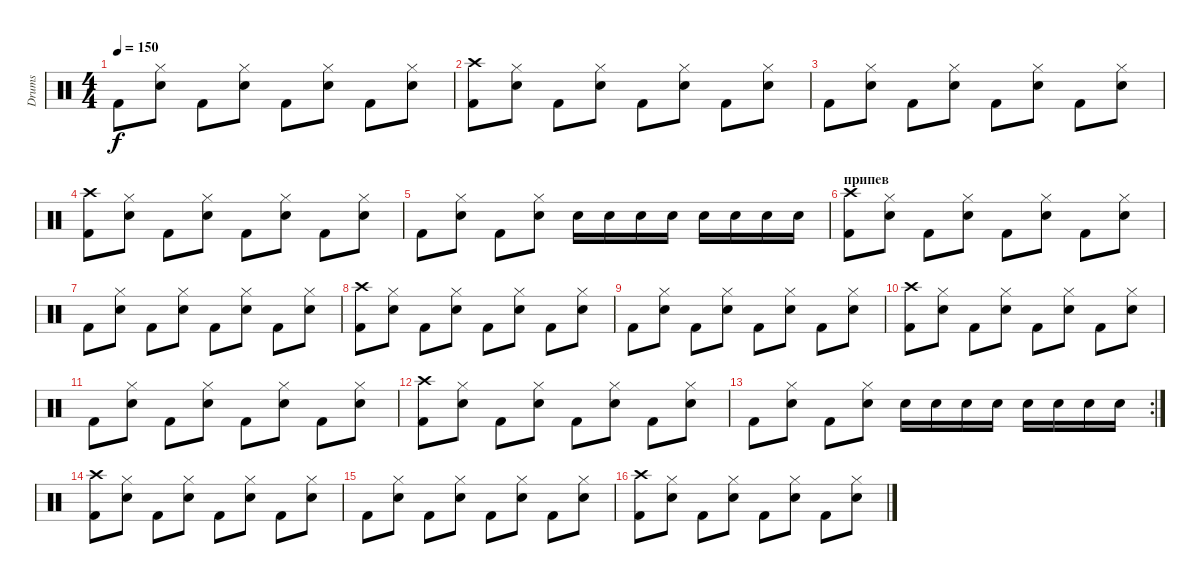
\track ("Drums" "Drums") {instrument percussion}
\staff {score}
\articulation defaults
\ts (4 4)
\tempo 150
\clef neutral
\ks c "Kick (hit) 2".8{dy f}
("Hi-Hat (closed)" "Electric Snare (hit)").8 "Kick (hit) 2".8 ("Hi-Hat (closed)" "Electric Snare (hit)").8 "Kick (hit) 2".8 ("Hi-Hat (closed)" "Electric Snare (hit)").8 "Kick (hit) 2".8 ("Hi-Hat (closed)" "Electric Snare (hit)").8 |
("Crash high (hit)" "Kick (hit) 2").8 ("Hi-Hat (closed)" "Electric Snare (hit)").8 "Kick (hit) 2".8 ("Hi-Hat (closed)" "Electric Snare (hit)").8 "Kick (hit) 2".8 ("Hi-Hat (closed)" "Electric Snare (hit)").8 "Kick (hit) 2".8 ("Hi-Hat (closed)" "Electric Snare (hit)").8 |
"Kick (hit) 2".8 ("Hi-Hat (closed)" "Electric Snare (hit)").8 "Kick (hit) 2".8 ("Hi-Hat (closed)" "Electric Snare (hit)").8 "Kick (hit) 2".8 ("Hi-Hat (closed)" "Electric Snare (hit)").8 "Kick (hit) 2".8 ("Hi-Hat (closed)" "Electric Snare (hit)").8 |
("Crash high (hit)" "Kick (hit) 2").8 ("Hi-Hat (closed)" "Electric Snare (hit)").8 "Kick (hit) 2".8 ("Hi-Hat (closed)" "Electric Snare (hit)").8 "Kick (hit) 2".8 ("Hi-Hat (closed)" "Electric Snare (hit)").8 "Kick (hit) 2".8 ("Hi-Hat (closed)" "Electric Snare (hit)").8 |
"Kick (hit) 2".8 ("Hi-Hat (closed)" "Electric Snare (hit)").8 "Kick (hit) 2".8 ("Hi-Hat (closed)" "Electric Snare (hit)").8 "Snare (hit) 2".16 "Snare (hit) 2".16 "Snare (hit) 2".16 "Snare (hit) 2".16 "Snare (hit) 2".16 "Snare (hit) 2".16 "Snare (hit) 2".16 "Snare (hit) 2".16 |
\section ("" "припев")
("Crash high (hit)" "Kick (hit) 2").8 ("Hi-Hat (closed)" "Electric Snare (hit)").8 "Kick (hit) 2".8 ("Hi-Hat (closed)" "Electric Snare (hit)").8 "Kick (hit) 2".8 ("Hi-Hat (closed)" "Electric Snare (hit)").8 "Kick (hit) 2".8 ("Hi-Hat (closed)" "Electric Snare (hit)").8 |
"Kick (hit) 2".8 ("Hi-Hat (closed)" "Electric Snare (hit)").8 "Kick (hit) 2".8 ("Hi-Hat (closed)" "Electric Snare (hit)").8 "Kick (hit) 2".8 ("Hi-Hat (closed)" "Electric Snare (hit)").8 "Kick (hit) 2".8 ("Hi-Hat (closed)" "Electric Snare (hit)").8 |
("Crash high (hit)" "Kick (hit) 2").8 ("Hi-Hat (closed)" "Electric Snare (hit)").8 "Kick (hit) 2".8 ("Hi-Hat (closed)" "Electric Snare (hit)").8 "Kick (hit) 2".8 ("Hi-Hat (closed)" "Electric Snare (hit)").8 "Kick (hit) 2".8 ("Hi-Hat (closed)" "Electric Snare (hit)").8 |
"Kick (hit) 2".8 ("Hi-Hat (closed)" "Electric Snare (hit)").8 "Kick (hit) 2".8 ("Hi-Hat (closed)" "Electric Snare (hit)").8 "Kick (hit) 2".8 ("Hi-Hat (closed)" "Electric Snare (hit)").8 "Kick (hit) 2".8 ("Hi-Hat (closed)" "Electric Snare (hit)").8 |
("Crash high (hit)" "Kick (hit) 2").8 ("Hi-Hat (closed)" "Electric Snare (hit)").8 "Kick (hit) 2".8 ("Hi-Hat (closed)" "Electric Snare (hit)").8 "Kick (hit) 2".8 ("Hi-Hat (closed)" "Electric Snare (hit)").8 "Kick (hit) 2".8 ("Hi-Hat (closed)" "Electric Snare (hit)").8 |
"Kick (hit) 2".8 ("Hi-Hat (closed)" "Electric Snare (hit)").8 "Kick (hit) 2".8 ("Hi-Hat (closed)" "Electric Snare (hit)").8 "Kick (hit) 2".8 ("Hi-Hat (closed)" "Electric Snare (hit)").8 "Kick (hit) 2".8 ("Hi-Hat (closed)" "Electric Snare (hit)").8 |
("Crash high (hit)" "Kick (hit) 2").8 ("Hi-Hat (closed)" "Electric Snare (hit)").8 "Kick (hit) 2".8 ("Hi-Hat (closed)" "Electric Snare (hit)").8 "Kick (hit) 2".8 ("Hi-Hat (closed)" "Electric Snare (hit)").8 "Kick (hit) 2".8 ("Hi-Hat (closed)" "Electric Snare (hit)").8 |
\rc 2 "Kick (hit) 2".8
("Hi-Hat (closed)" "Electric Snare (hit)").8 "Kick (hit) 2".8 ("Hi-Hat (closed)" "Electric Snare (hit)").8 "Snare (hit) 2".16 "Snare (hit) 2".16 "Snare (hit) 2".16 "Snare (hit) 2".16 "Snare (hit) 2".16 "Snare (hit) 2".16 "Snare (hit) 2".16 "Snare (hit) 2".16 |
("Crash high (hit)" "Kick (hit) 2").8 ("Hi-Hat (closed)" "Electric Snare (hit)").8 "Kick (hit) 2".8 ("Hi-Hat (closed)" "Electric Snare (hit)").8 "Kick (hit) 2".8 ("Hi-Hat (closed)" "Electric Snare (hit)").8 "Kick (hit) 2".8 ("Hi-Hat (closed)" "Electric Snare (hit)").8 |
"Kick (hit) 2".8 ("Hi-Hat (closed)" "Electric Snare (hit)").8 "Kick (hit) 2".8 ("Hi-Hat (closed)" "Electric Snare (hit)").8 "Kick (hit) 2".8 ("Hi-Hat (closed)" "Electric Snare (hit)").8 "Kick (hit) 2".8 ("Hi-Hat (closed)" "Electric Snare (hit)").8 |
("Crash high (hit)" "Kick (hit) 2").8 ("Hi-Hat (closed)" "Electric Snare (hit)").8 "Kick (hit) 2".8 ("Hi-Hat (closed)" "Electric Snare (hit)").8 "Kick (hit) 2".8 ("Hi-Hat (closed)" "Electric Snare (hit)").8 "Kick (hit) 2".8 ("Hi-Hat (closed)" "Electric Snare (hit)").8
